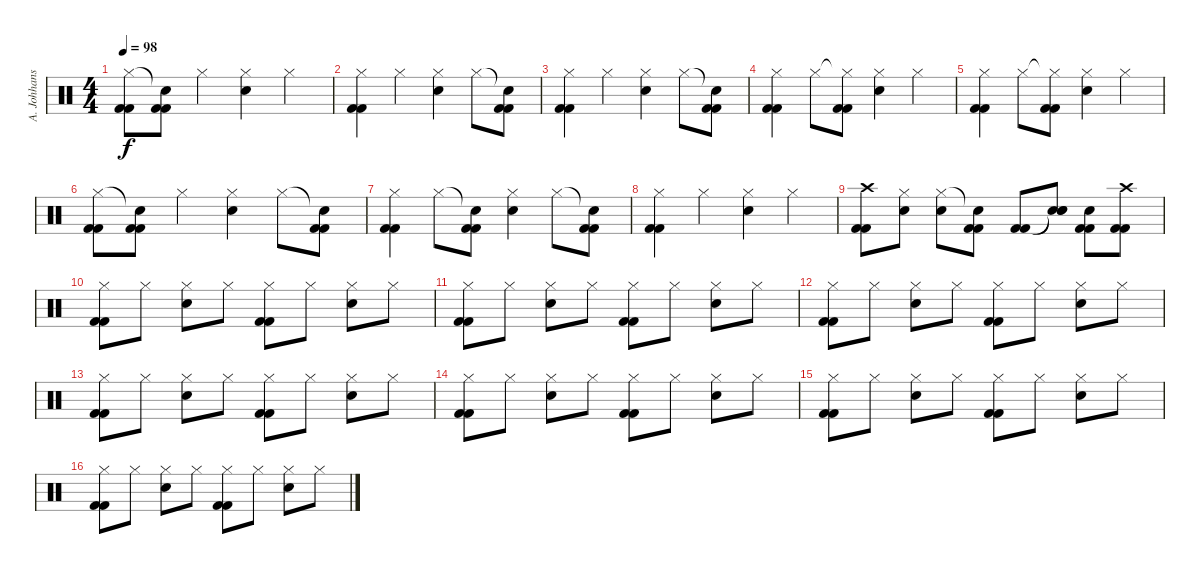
\track ("A. Johhanson" "A. Johhans") {instrument percussion}
\staff {score}
\articulation defaults
\ts (4 4)
\tempo 98
\clef neutral
\ks c
("Hi-Hat (closed)" "Kick (hit) 2" "Kick (hit) 2").8{dy f} ("Snare (hit)"{t} "Kick (hit) 2" "Kick (hit) 2").8 "Hi-Hat (closed)".4 ("Hi-Hat (closed)" "Snare (hit) 2").4 "Hi-Hat (closed)".4 |
("Hi-Hat (closed)" "Kick (hit) 2" "Kick (hit) 2").4 "Hi-Hat (closed)".4 ("Hi-Hat (closed)" "Snare (hit) 2").4 "Hi-Hat (closed)".8 ("Snare (hit)"{t} "Kick (hit) 2" "Kick (hit) 2").8 |
("Hi-Hat (closed)" "Kick (hit) 2" "Kick (hit) 2").4 "Hi-Hat (closed)".4 ("Hi-Hat (closed)" "Snare (hit) 2").4 "Hi-Hat (closed)".8 ("Snare (hit)"{t} "Kick (hit) 2" "Kick (hit) 2").8 |
("Hi-Hat (closed)" "Kick (hit) 2" "Kick (hit) 2").4 "Hi-Hat (closed)".8 ("Hi-Hat (closed)"{t} "Kick (hit) 2" "Kick (hit) 2").8 ("Hi-Hat (closed)" "Snare (hit) 2").4 "Hi-Hat (closed)".4 |
("Hi-Hat (closed)" "Kick (hit) 2" "Kick (hit) 2").4 "Hi-Hat (closed)".8 ("Hi-Hat (closed)"{t} "Kick (hit) 2" "Kick (hit) 2").8 ("Hi-Hat (closed)" "Snare (hit) 2").4 "Hi-Hat (closed)".4 |
("Hi-Hat (closed)" "Kick (hit) 2" "Kick (hit) 2").8 ("Snare (hit)"{t} "Kick (hit) 2" "Kick (hit) 2").8 "Hi-Hat (closed)".4 ("Hi-Hat (closed)" "Snare (hit) 2").4 "Hi-Hat (closed)".8 ("Snare (hit)"{t} "Kick (hit) 2" "Kick (hit) 2").8 |
("Hi-Hat (closed)" "Kick (hit) 2" "Kick (hit) 2").4 "Hi-Hat (closed)".8 ("Snare (hit)"{t} "Kick (hit) 2" "Kick (hit) 2").8 ("Hi-Hat (closed)" "Snare (hit) 2").4 "Hi-Hat (closed)".8 ("Snare (hit)"{t} "Kick (hit) 2" "Kick (hit) 2").8 |
("Hi-Hat (closed)" "Kick (hit) 2" "Kick (hit) 2").4 "Hi-Hat (closed)".4 ("Hi-Hat (closed)" "Snare (hit) 2").4 "Hi-Hat (closed)".4 |
("Crash high (hit)" "Kick (hit) 2" "Kick (hit) 2").8 ("Hi-Hat (closed)" "Snare (hit) 2").8 ("Hi-Hat (closed)" "Snare (hit) 2").8 ("Snare (hit)"{t} "Kick (hit) 2" "Kick (hit) 2").8 ("Kick (hit) 2" "Kick (hit) 2").8 ("Snare (hit)"{t} "Snare (hit)"{t} "Snare (hit) 2").8 ("Kick (hit) 2" "Kick (hit) 2" "Snare (hit) 2").8 ("Crash high (hit)" "Kick (hit) 2" "Kick (hit) 2").8 |
("Hi-Hat (closed)" "Kick (hit) 2" "Kick (hit) 2").8 "Hi-Hat (closed)".8 ("Hi-Hat (closed)" "Snare (hit) 2").8 "Hi-Hat (closed)".8 ("Hi-Hat (closed)" "Kick (hit) 2" "Kick (hit) 2").8 "Hi-Hat (closed)".8 ("Hi-Hat (closed)" "Snare (hit) 2").8 "Hi-Hat (closed)".8 |
("Hi-Hat (closed)" "Kick (hit) 2" "Kick (hit) 2").8 "Hi-Hat (closed)".8 ("Hi-Hat (closed)" "Snare (hit) 2").8 "Hi-Hat (closed)".8 ("Hi-Hat (closed)" "Kick (hit) 2" "Kick (hit) 2").8 "Hi-Hat (closed)".8 ("Hi-Hat (closed)" "Snare (hit) 2").8 "Hi-Hat (closed)".8 |
("Hi-Hat (closed)" "Kick (hit) 2" "Kick (hit) 2").8 "Hi-Hat (closed)".8 ("Hi-Hat (closed)" "Snare (hit) 2").8 "Hi-Hat (closed)".8 ("Hi-Hat (closed)" "Kick (hit) 2" "Kick (hit) 2").8 "Hi-Hat (closed)".8 ("Hi-Hat (closed)" "Snare (hit) 2").8 "Hi-Hat (closed)".8 |
("Hi-Hat (closed)" "Kick (hit) 2" "Kick (hit) 2").8 "Hi-Hat (closed)".8 ("Hi-Hat (closed)" "Snare (hit) 2").8 "Hi-Hat (closed)".8 ("Hi-Hat (closed)" "Kick (hit) 2" "Kick (hit) 2").8 "Hi-Hat (closed)".8 ("Hi-Hat (closed)" "Snare (hit) 2").8 "Hi-Hat (closed)".8 |
("Hi-Hat (closed)" "Kick (hit) 2" "Kick (hit) 2").8 "Hi-Hat (closed)".8 ("Hi-Hat (closed)" "Snare (hit) 2").8 "Hi-Hat (closed)".8 ("Hi-Hat (closed)" "Kick (hit) 2" "Kick (hit) 2").8 "Hi-Hat (closed)".8 ("Hi-Hat (closed)" "Snare (hit) 2").8 "Hi-Hat (closed)".8 |
("Hi-Hat (closed)" "Kick (hit) 2" "Kick (hit) 2").8 "Hi-Hat (closed)".8 ("Hi-Hat (closed)" "Snare (hit) 2").8 "Hi-Hat (closed)".8 ("Hi-Hat (closed)" "Kick (hit) 2" "Kick (hit) 2").8 "Hi-Hat (closed)".8 ("Hi-Hat (closed)" "Snare (hit) 2").8 "Hi-Hat (closed)".8 |
("Hi-Hat (closed)" "Kick (hit) 2" "Kick (hit) 2").8 "Hi-Hat (closed)".8 ("Hi-Hat (closed)" "Snare (hit) 2").8 "Hi-Hat (closed)".8 ("Hi-Hat (closed)" "Kick (hit) 2" "Kick (hit) 2").8 "Hi-Hat (closed)".8 ("Hi-Hat (closed)" "Snare (hit) 2").8 "Hi-Hat (closed)".8
